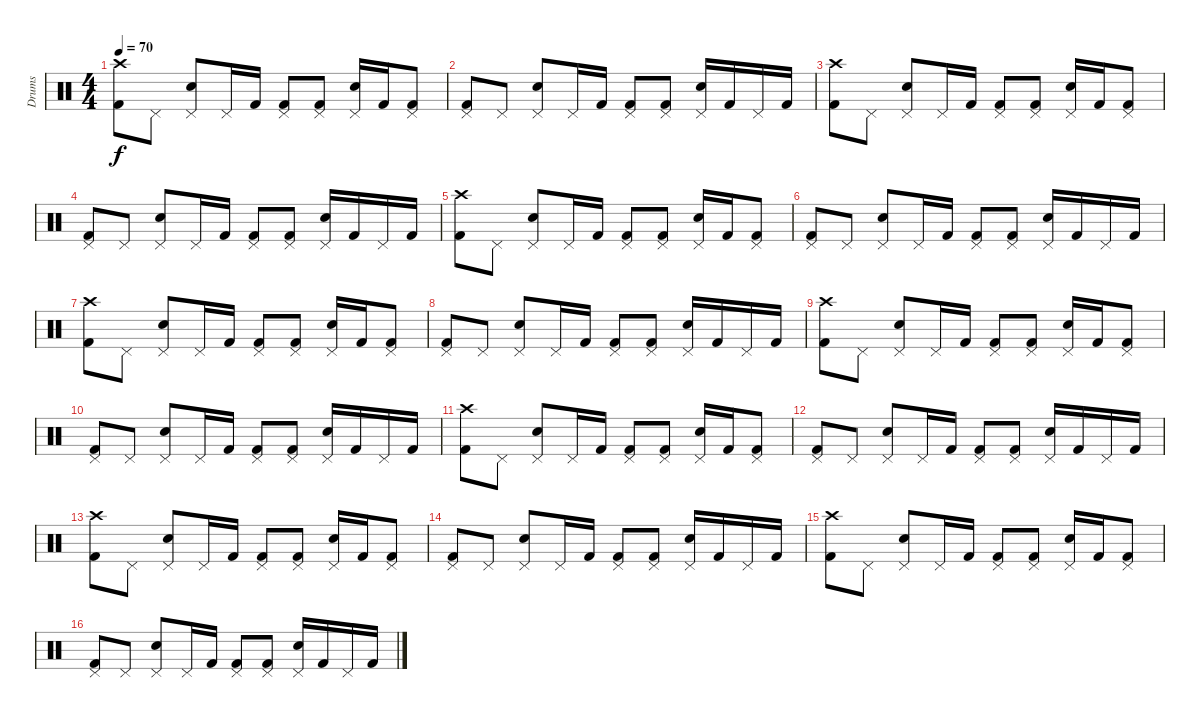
\track ("Drums" "Drums") {instrument percussion}
\staff {score}
\articulation defaults
\ts (4 4)
\tempo 70
\clef neutral
\ks c
("Crash high (hit)" "Kick (hit) 2").8{dy f volume 4} "Pedal Hi-Hat (hit)".8 ("Pedal Hi-Hat (hit)" "Electric Snare (hit)").8 "Pedal Hi-Hat (hit)".16 "Kick (hit) 2".16 ("Pedal Hi-Hat (hit)" "Kick (hit) 2").8 ("Pedal Hi-Hat (hit)" "Kick (hit) 2").8 ("Pedal Hi-Hat (hit)" "Electric Snare (hit)").16 "Kick (hit) 2".16 ("Pedal Hi-Hat (hit)" "Kick (hit) 2").8 |
("Pedal Hi-Hat (hit)" "Kick (hit) 2").8 "Pedal Hi-Hat (hit)".8 ("Pedal Hi-Hat (hit)" "Electric Snare (hit)").8 "Pedal Hi-Hat (hit)".16 "Kick (hit) 2".16 ("Pedal Hi-Hat (hit)" "Kick (hit) 2").8 ("Pedal Hi-Hat (hit)" "Kick (hit) 2").8 ("Pedal Hi-Hat (hit)" "Electric Snare (hit)").16 "Kick (hit) 2".16 "Pedal Hi-Hat (hit)".16 "Kick (hit) 2".16 |
("Crash high (hit)" "Kick (hit) 2").8 "Pedal Hi-Hat (hit)".8 ("Pedal Hi-Hat (hit)" "Electric Snare (hit)").8 "Pedal Hi-Hat (hit)".16 "Kick (hit) 2".16 ("Pedal Hi-Hat (hit)" "Kick (hit) 2").8 ("Pedal Hi-Hat (hit)" "Kick (hit) 2").8 ("Pedal Hi-Hat (hit)" "Electric Snare (hit)").16 "Kick (hit) 2".16 ("Pedal Hi-Hat (hit)" "Kick (hit) 2").8 |
("Pedal Hi-Hat (hit)" "Kick (hit) 2").8 "Pedal Hi-Hat (hit)".8 ("Pedal Hi-Hat (hit)" "Electric Snare (hit)").8 "Pedal Hi-Hat (hit)".16 "Kick (hit) 2".16 ("Pedal Hi-Hat (hit)" "Kick (hit) 2").8 ("Pedal Hi-Hat (hit)" "Kick (hit) 2").8 ("Pedal Hi-Hat (hit)" "Electric Snare (hit)").16 "Kick (hit) 2".16 "Pedal Hi-Hat (hit)".16 "Kick (hit) 2".16 |
("Crash high (hit)" "Kick (hit) 2").8{volume 6} "Pedal Hi-Hat (hit)".8 ("Pedal Hi-Hat (hit)" "Electric Snare (hit)").8 "Pedal Hi-Hat (hit)".16 "Kick (hit) 2".16 ("Pedal Hi-Hat (hit)" "Kick (hit) 2").8 ("Pedal Hi-Hat (hit)" "Kick (hit) 2").8 ("Pedal Hi-Hat (hit)" "Electric Snare (hit)").16 "Kick (hit) 2".16 ("Pedal Hi-Hat (hit)" "Kick (hit) 2").8 |
("Pedal Hi-Hat (hit)" "Kick (hit) 2").8 "Pedal Hi-Hat (hit)".8 ("Pedal Hi-Hat (hit)" "Electric Snare (hit)").8 "Pedal Hi-Hat (hit)".16 "Kick (hit) 2".16 ("Pedal Hi-Hat (hit)" "Kick (hit) 2").8 ("Pedal Hi-Hat (hit)" "Kick (hit) 2").8 ("Pedal Hi-Hat (hit)" "Electric Snare (hit)").16 "Kick (hit) 2".16 "Pedal Hi-Hat (hit)".16 "Kick (hit) 2".16 |
("Crash high (hit)" "Kick (hit) 2").8 "Pedal Hi-Hat (hit)".8 ("Pedal Hi-Hat (hit)" "Electric Snare (hit)").8 "Pedal Hi-Hat (hit)".16 "Kick (hit) 2".16 ("Pedal Hi-Hat (hit)" "Kick (hit) 2").8 ("Pedal Hi-Hat (hit)" "Kick (hit) 2").8 ("Pedal Hi-Hat (hit)" "Electric Snare (hit)").16 "Kick (hit) 2".16 ("Pedal Hi-Hat (hit)" "Kick (hit) 2").8 |
("Pedal Hi-Hat (hit)" "Kick (hit) 2").8 "Pedal Hi-Hat (hit)".8 ("Pedal Hi-Hat (hit)" "Electric Snare (hit)").8 "Pedal Hi-Hat (hit)".16 "Kick (hit) 2".16 ("Pedal Hi-Hat (hit)" "Kick (hit) 2").8 ("Pedal Hi-Hat (hit)" "Kick (hit) 2").8 ("Pedal Hi-Hat (hit)" "Electric Snare (hit)").16 "Kick (hit) 2".16 "Pedal Hi-Hat (hit)".16 "Kick (hit) 2".16 |
("Crash high (hit)" "Kick (hit) 2").8{volume 8} "Pedal Hi-Hat (hit)".8 ("Pedal Hi-Hat (hit)" "Electric Snare (hit)").8 "Pedal Hi-Hat (hit)".16 "Kick (hit) 2".16 ("Pedal Hi-Hat (hit)" "Kick (hit) 2").8 ("Pedal Hi-Hat (hit)" "Kick (hit) 2").8 ("Pedal Hi-Hat (hit)" "Electric Snare (hit)").16 "Kick (hit) 2".16 ("Pedal Hi-Hat (hit)" "Kick (hit) 2").8 |
("Pedal Hi-Hat (hit)" "Kick (hit) 2").8 "Pedal Hi-Hat (hit)".8 ("Pedal Hi-Hat (hit)" "Electric Snare (hit)").8 "Pedal Hi-Hat (hit)".16 "Kick (hit) 2".16 ("Pedal Hi-Hat (hit)" "Kick (hit) 2").8 ("Pedal Hi-Hat (hit)" "Kick (hit) 2").8 ("Pedal Hi-Hat (hit)" "Electric Snare (hit)").16 "Kick (hit) 2".16 "Pedal Hi-Hat (hit)".16 "Kick (hit) 2".16 |
("Crash high (hit)" "Kick (hit) 2").8 "Pedal Hi-Hat (hit)".8 ("Pedal Hi-Hat (hit)" "Electric Snare (hit)").8 "Pedal Hi-Hat (hit)".16 "Kick (hit) 2".16 ("Pedal Hi-Hat (hit)" "Kick (hit) 2").8 ("Pedal Hi-Hat (hit)" "Kick (hit) 2").8 ("Pedal Hi-Hat (hit)" "Electric Snare (hit)").16 "Kick (hit) 2".16 ("Pedal Hi-Hat (hit)" "Kick (hit) 2").8 |
("Pedal Hi-Hat (hit)" "Kick (hit) 2").8 "Pedal Hi-Hat (hit)".8 ("Pedal Hi-Hat (hit)" "Electric Snare (hit)").8 "Pedal Hi-Hat (hit)".16 "Kick (hit) 2".16 ("Pedal Hi-Hat (hit)" "Kick (hit) 2").8 ("Pedal Hi-Hat (hit)" "Kick (hit) 2").8 ("Pedal Hi-Hat (hit)" "Electric Snare (hit)").16 "Kick (hit) 2".16 "Pedal Hi-Hat (hit)".16 "Kick (hit) 2".16 |
("Crash high (hit)" "Kick (hit) 2").8{volume 10} "Pedal Hi-Hat (hit)".8 ("Pedal Hi-Hat (hit)" "Electric Snare (hit)").8 "Pedal Hi-Hat (hit)".16 "Kick (hit) 2".16 ("Pedal Hi-Hat (hit)" "Kick (hit) 2").8 ("Pedal Hi-Hat (hit)" "Kick (hit) 2").8 ("Pedal Hi-Hat (hit)" "Electric Snare (hit)").16 "Kick (hit) 2".16 ("Pedal Hi-Hat (hit)" "Kick (hit) 2").8 |
("Pedal Hi-Hat (hit)" "Kick (hit) 2").8 "Pedal Hi-Hat (hit)".8 ("Pedal Hi-Hat (hit)" "Electric Snare (hit)").8 "Pedal Hi-Hat (hit)".16 "Kick (hit) 2".16 ("Pedal Hi-Hat (hit)" "Kick (hit) 2").8 ("Pedal Hi-Hat (hit)" "Kick (hit) 2").8 ("Pedal Hi-Hat (hit)" "Electric Snare (hit)").16 "Kick (hit) 2".16 "Pedal Hi-Hat (hit)".16 "Kick (hit) 2".16 |
("Crash high (hit)" "Kick (hit) 2").8 "Pedal Hi-Hat (hit)".8 ("Pedal Hi-Hat (hit)" "Electric Snare (hit)").8 "Pedal Hi-Hat (hit)".16 "Kick (hit) 2".16 ("Pedal Hi-Hat (hit)" "Kick (hit) 2").8 ("Pedal Hi-Hat (hit)" "Kick (hit) 2").8 ("Pedal Hi-Hat (hit)" "Electric Snare (hit)").16 "Kick (hit) 2".16 ("Pedal Hi-Hat (hit)" "Kick (hit) 2").8 |
("Pedal Hi-Hat (hit)" "Kick (hit) 2").8 "Pedal Hi-Hat (hit)".8 ("Pedal Hi-Hat (hit)" "Electric Snare (hit)").8 "Pedal Hi-Hat (hit)".16 "Kick (hit) 2".16 ("Pedal Hi-Hat (hit)" "Kick (hit) 2").8 ("Pedal Hi-Hat (hit)" "Kick (hit) 2").8 ("Pedal Hi-Hat (hit)" "Electric Snare (hit)").16 "Kick (hit) 2".16 "Pedal Hi-Hat (hit)".16 "Kick (hit) 2".16
